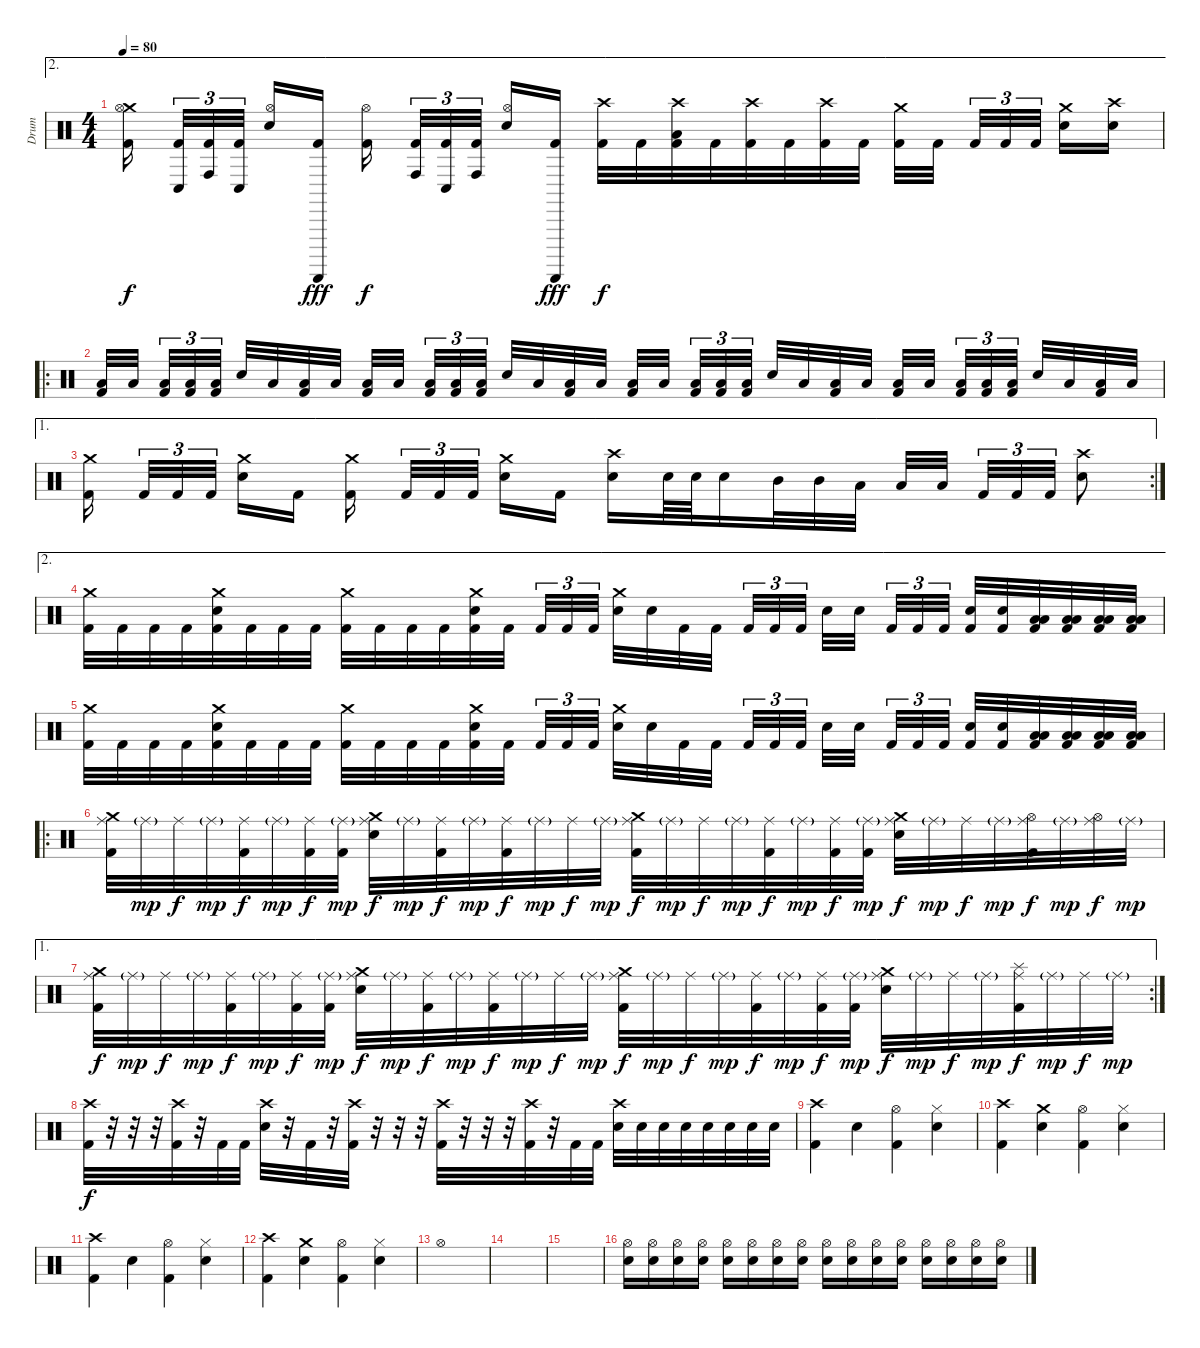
\track ("Drum" "Drum") {instrument percussion}
\staff {score}
\articulation defaults
\ae 2
\ts (4 4)
\tempo 80
\clef neutral
\ks c
("Crash medium (hit)" "Hi-Hat (open)" "Kick (hit) 2").16{dy f} ("Conga low (hit)" "Kick (hit) 2").32{tu (3 2)} ("Conga high (hit)" "Kick (hit) 2").32{tu (3 2)} ("Conga low (hit)" "Kick (hit) 2").32{tu (3 2)} ("Hi-Hat (open)" "Electric Snare (hit)").16 ("Guiro (scrap-return)" "Kick (hit) 2").16{dy fff} ("Hi-Hat (open)" "Kick (hit) 2").16{dy f} ("Conga high (hit)" "Kick (hit) 2").32{tu (3 2)} ("Conga low (hit)" "Kick (hit) 2").32{tu (3 2)} ("Conga high (hit)" "Kick (hit) 2").32{tu (3 2)} ("Hi-Hat (open)" "Electric Snare (hit)").16 ("Guiro (scrap-return)" "Kick (hit) 2").16{dy fff} ("Crash high (hit)" "Kick (hit) 2").32{dy f} "Kick (hit) 2".32 ("Crash high (hit)" "Low Tom (hit)" "Kick (hit) 2").32 "Kick (hit) 2".32 ("Crash high (hit)" "Kick (hit) 2").32 "Kick (hit) 2".32 ("Crash high (hit)" "Kick (hit) 2").32 "Kick (hit) 2".32 ("Crash medium (hit)" "Kick (hit) 2").32 "Kick (hit) 2".32 "Kick (hit) 2".32{tu (3 2)} "Kick (hit) 2".32{tu (3 2)} "Kick (hit) 2".32{tu (3 2)} ("Crash medium (hit)" "Electric Snare (hit)").16 ("Crash high (hit)" "Electric Snare (hit)").16 |
\ro
\section ("" "")
("Low Tom (hit)" "Kick (hit) 2").32 "Low Tom (hit)".32 ("Low Tom (hit)" "Kick (hit) 2").32{tu (3 2)} ("Low Tom (hit)" "Kick (hit) 2").32{tu (3 2)} ("Low Tom (hit)" "Kick (hit) 2").32{tu (3 2)} "Electric Snare (hit)".32 "Low Tom (hit)".32 ("Low Tom (hit)" "Kick (hit) 2").32 "Low Tom (hit)".32 ("Low Tom (hit)" "Kick (hit) 2").32 "Low Tom (hit)".32 ("Low Tom (hit)" "Kick (hit) 2").32{tu (3 2)} ("Low Tom (hit)" "Kick (hit) 2").32{tu (3 2)} ("Low Tom (hit)" "Kick (hit) 2").32{tu (3 2)} "Electric Snare (hit)".32 "Low Tom (hit)".32 ("Low Tom (hit)" "Kick (hit) 2").32 "Low Tom (hit)".32 ("Low Tom (hit)" "Kick (hit) 2").32 "Low Tom (hit)".32 ("Low Tom (hit)" "Kick (hit) 2").32{tu (3 2)} ("Low Tom (hit)" "Kick (hit) 2").32{tu (3 2)} ("Low Tom (hit)" "Kick (hit) 2").32{tu (3 2)} "Electric Snare (hit)".32 "Low Tom (hit)".32 ("Low Tom (hit)" "Kick (hit) 2").32 "Low Tom (hit)".32 ("Low Tom (hit)" "Kick (hit) 2").32 "Low Tom (hit)".32 ("Low Tom (hit)" "Kick (hit) 2").32{tu (3 2)} ("Low Tom (hit)" "Kick (hit) 2").32{tu (3 2)} ("Low Tom (hit)" "Kick (hit) 2").32{tu (3 2)} "Electric Snare (hit)".32 "Low Tom (hit)".32 ("Low Tom (hit)" "Kick (hit) 2").32 "Low Tom (hit)".32 |
\ae 1
\rc 2
("Crash medium (hit)" "Kick (hit) 2").16 "Kick (hit) 2".32{tu (3 2)} "Kick (hit) 2".32{tu (3 2)} "Kick (hit) 2".32{tu (3 2)} ("Crash medium (hit)" "Electric Snare (hit)").16 "Kick (hit) 2".16 ("Crash medium (hit)" "Kick (hit) 2").16 "Kick (hit) 2".32{tu (3 2)} "Kick (hit) 2".32{tu (3 2)} "Kick (hit) 2".32{tu (3 2)} ("Crash medium (hit)" "Electric Snare (hit)").16 "Kick (hit) 2".16 ("Crash high (hit)" "Electric Snare (hit)").16 "Electric Snare (hit)".64 "Electric Snare (hit)".64 "Electric Snare (hit)".16 "Mid Tom (hit)".32 "Mid Tom (hit)".32 "Low Tom (hit)".32 "Low Tom (hit)".32 "Low Tom (hit)".32 "Kick (hit) 2".32{tu (3 2)} "Kick (hit) 2".32{tu (3 2)} "Kick (hit) 2".32{tu (3 2)} ("Crash high (hit)" "Electric Snare (hit)").8 |
\ae 2
("Crash medium (hit)" "Kick (hit) 2").32 "Kick (hit) 2".32 "Kick (hit) 2".32 "Kick (hit) 2".32 ("Crash medium (hit)" "Electric Snare (hit)" "Kick (hit) 2").32 "Kick (hit) 2".32 "Kick (hit) 2".32 "Kick (hit) 2".32 ("Crash medium (hit)" "Kick (hit) 2").32 "Kick (hit) 2".32 "Kick (hit) 2".32 "Kick (hit) 2".32 ("Crash medium (hit)" "Electric Snare (hit)" "Kick (hit) 2").32 "Kick (hit) 2".32 "Kick (hit) 2".32{tu (3 2)} "Kick (hit) 2".32{tu (3 2)} "Kick (hit) 2".32{tu (3 2)} ("Crash medium (hit)" "Electric Snare (hit)").32 "Electric Snare (hit)".32 "Kick (hit) 2".32 "Kick (hit) 2".32 "Kick (hit) 2".32{tu (3 2)} "Kick (hit) 2".32{tu (3 2)} "Kick (hit) 2".32{tu (3 2)} "Electric Snare (hit)".32 "Electric Snare (hit)".32 "Kick (hit) 2".32{tu (3 2)} "Kick (hit) 2".32{tu (3 2)} "Kick (hit) 2".32{tu (3 2)} ("Electric Snare (hit)" "Kick (hit) 2").32 ("Electric Snare (hit)" "Kick (hit) 2").32 ("Low Tom (hit)" "Low Tom (hit)" "Kick (hit) 2").32 ("Low Tom (hit)" "Low Tom (hit)" "Kick (hit) 2").32 ("Low Tom (hit)" "Low Tom (hit)" "Kick (hit) 2").32 ("Low Tom (hit)" "Low Tom (hit)" "Kick (hit) 2").32 |
("Crash medium (hit)" "Kick (hit) 2").32 "Kick (hit) 2".32 "Kick (hit) 2".32 "Kick (hit) 2".32 ("Crash medium (hit)" "Electric Snare (hit)" "Kick (hit) 2").32 "Kick (hit) 2".32 "Kick (hit) 2".32 "Kick (hit) 2".32 ("Crash medium (hit)" "Kick (hit) 2").32 "Kick (hit) 2".32 "Kick (hit) 2".32 "Kick (hit) 2".32 ("Crash medium (hit)" "Electric Snare (hit)" "Kick (hit) 2").32 "Kick (hit) 2".32 "Kick (hit) 2".32{tu (3 2)} "Kick (hit) 2".32{tu (3 2)} "Kick (hit) 2".32{tu (3 2)} ("Crash medium (hit)" "Electric Snare (hit)").32 "Electric Snare (hit)".32 "Kick (hit) 2".32 "Kick (hit) 2".32 "Kick (hit) 2".32{tu (3 2)} "Kick (hit) 2".32{tu (3 2)} "Kick (hit) 2".32{tu (3 2)} "Electric Snare (hit)".32 "Electric Snare (hit)".32 "Kick (hit) 2".32{tu (3 2)} "Kick (hit) 2".32{tu (3 2)} "Kick (hit) 2".32{tu (3 2)} ("Electric Snare (hit)" "Kick (hit) 2").32 ("Electric Snare (hit)" "Kick (hit) 2").32 ("Low Tom (hit)" "Low Tom (hit)" "Kick (hit) 2").32 ("Low Tom (hit)" "Low Tom (hit)" "Kick (hit) 2").32 ("Low Tom (hit)" "Low Tom (hit)" "Kick (hit) 2").32 ("Low Tom (hit)" "Low Tom (hit)" "Kick (hit) 2").32 |
\ro
\section ("" "")
("Crash medium (hit)" "Ride (middle)" "Kick (hit) 2").32 "Ride (middle)"{g}.32{dy mp} "Ride (middle)".32{dy f} "Ride (middle)"{g}.32{dy mp} ("Ride (middle)" "Kick (hit) 2").32{dy f} "Ride (middle)"{g}.32{dy mp} ("Ride (middle)" "Kick (hit) 2").32{dy f} ("Ride (middle)"{g} "Kick (hit) 2").32{dy mp} ("Crash medium (hit)" "Ride (middle)" "Electric Snare (hit)").32{dy f} "Ride (middle)"{g}.32{dy mp} ("Ride (middle)" "Kick (hit) 2").32{dy f} "Ride (middle)"{g}.32{dy mp} ("Ride (middle)" "Kick (hit) 2").32{dy f} "Ride (middle)"{g}.32{dy mp} "Ride (middle)".32{dy f} "Ride (middle)"{g}.32{dy mp} ("Crash medium (hit)" "Ride (middle)" "Kick (hit) 2").32{dy f} "Ride (middle)"{g}.32{dy mp} "Ride (middle)".32{dy f} "Ride (middle)"{g}.32{dy mp} ("Ride (middle)" "Kick (hit) 2").32{dy f} "Ride (middle)"{g}.32{dy mp} ("Ride (middle)" "Kick (hit) 2").32{dy f} ("Ride (middle)"{g} "Kick (hit) 2").32{dy mp} ("Crash medium (hit)" "Ride (middle)" "Electric Snare (hit)").32{dy f} "Ride (middle)"{g}.32{dy mp} "Ride (middle)".32{dy f} "Ride (middle)"{g}.32{dy mp} ("Hi-Hat (open)" "Ride (middle)" "Kick (hit) 2").32{dy f} "Ride (middle)"{g}.32{dy mp} ("Hi-Hat (open)" "Ride (middle)").32{dy f} "Ride (middle)"{g}.32{dy mp} |
\ae 1
\rc 2
("Crash medium (hit)" "Ride (middle)" "Kick (hit) 2").32{dy f} "Ride (middle)"{g}.32{dy mp} "Ride (middle)".32{dy f} "Ride (middle)"{g}.32{dy mp} ("Ride (middle)" "Kick (hit) 2").32{dy f} "Ride (middle)"{g}.32{dy mp} ("Ride (middle)" "Kick (hit) 2").32{dy f} ("Ride (middle)"{g} "Kick (hit) 2").32{dy mp} ("Crash medium (hit)" "Ride (middle)" "Electric Snare (hit)").32{dy f} "Ride (middle)"{g}.32{dy mp} ("Ride (middle)" "Kick (hit) 2").32{dy f} "Ride (middle)"{g}.32{dy mp} ("Ride (middle)" "Kick (hit) 2").32{dy f} "Ride (middle)"{g}.32{dy mp} "Ride (middle)".32{dy f} "Ride (middle)"{g}.32{dy mp} ("Crash medium (hit)" "Ride (middle)" "Kick (hit) 2").32{dy f} "Ride (middle)"{g}.32{dy mp} "Ride (middle)".32{dy f} "Ride (middle)"{g}.32{dy mp} ("Ride (middle)" "Kick (hit) 2").32{dy f} "Ride (middle)"{g}.32{dy mp} ("Ride (middle)" "Kick (hit) 2").32{dy f} ("Ride (middle)"{g} "Kick (hit) 2").32{dy mp} ("Crash medium (hit)" "Ride (middle)" "Electric Snare (hit)").32{dy f} "Ride (middle)"{g}.32{dy mp} "Ride (middle)".32{dy f} "Ride (middle)"{g}.32{dy mp} ("Splash (hit)" "Ride (middle)" "Kick (hit) 2").32{dy f} "Ride (middle)"{g}.32{dy mp} "Ride (middle)".32{dy f} "Ride (middle)"{g}.32{dy mp} |
("Crash high (hit)" "Kick (hit) 2").32{dy f} r.32 r.32 r.32 ("Crash high (hit)" "Kick (hit) 2").32 r.32 "Kick (hit) 2".32 "Kick (hit) 2".32 ("Crash high (hit)" "Electric Snare (hit)").32 r.32 "Kick (hit) 2".32 r.32 ("Crash high (hit)" "Kick (hit) 2").32 r.32 r.32 r.32 ("Crash high (hit)" "Kick (hit) 2").32 r.32 r.32 r.32 ("Crash high (hit)" "Kick (hit) 2").32 r.32 "Kick (hit) 2".32 "Kick (hit) 2".32 ("Crash high (hit)" "Electric Snare (hit)").32 "Electric Snare (hit)".32 "Electric Snare (hit)".32 "Electric Snare (hit)".32 "Electric Snare (hit)".32 "Electric Snare (hit)".32 "Electric Snare (hit)".32 "Electric Snare (hit)".32 |
\section ("" "")
("Crash high (hit)" "Kick (hit) 2").4 "Electric Snare (hit)".4 ("Hi-Hat (open)" "Kick (hit) 2").4 ("Hi-Hat (closed)" "Electric Snare (hit)").4 |
("Crash high (hit)" "Kick (hit) 2").4 ("Crash medium (hit)" "Electric Snare (hit)").4 ("Hi-Hat (open)" "Kick (hit) 2").4 ("Hi-Hat (closed)" "Electric Snare (hit)").4 |
("Crash high (hit)" "Kick (hit) 2").4 "Electric Snare (hit)".4 ("Hi-Hat (open)" "Kick (hit) 2").4 ("Hi-Hat (closed)" "Electric Snare (hit)").4 |
("Crash high (hit)" "Kick (hit) 2").4 ("Crash medium (hit)" "Electric Snare (hit)").4 ("Hi-Hat (open)" "Kick (hit) 2").4 ("Hi-Hat (closed)" "Electric Snare (hit)").4 |
"Hi-Hat (open)".1 |
|
|
("Hi-Hat (open)" "Electric Snare (hit)").16{volume 16} ("Hi-Hat (open)" "Electric Snare (hit)").16 ("Hi-Hat (open)" "Electric Snare (hit)").16 ("Hi-Hat (open)" "Electric Snare (hit)").16 ("Hi-Hat (open)" "Electric Snare (hit)").16 ("Hi-Hat (open)" "Electric Snare (hit)").16 ("Hi-Hat (open)" "Electric Snare (hit)").16 ("Hi-Hat (open)" "Electric Snare (hit)").16 ("Hi-Hat (open)" "Electric Snare (hit)").16 ("Hi-Hat (open)" "Electric Snare (hit)").16 ("Hi-Hat (open)" "Electric Snare (hit)").16 ("Hi-Hat (open)" "Electric Snare (hit)").16 ("Hi-Hat (open)" "Electric Snare (hit)").16 ("Hi-Hat (open)" "Electric Snare (hit)").16{volume 16} ("Hi-Hat (open)" "Electric Snare (hit)").16 ("Hi-Hat (open)" "Electric Snare (hit)").16
